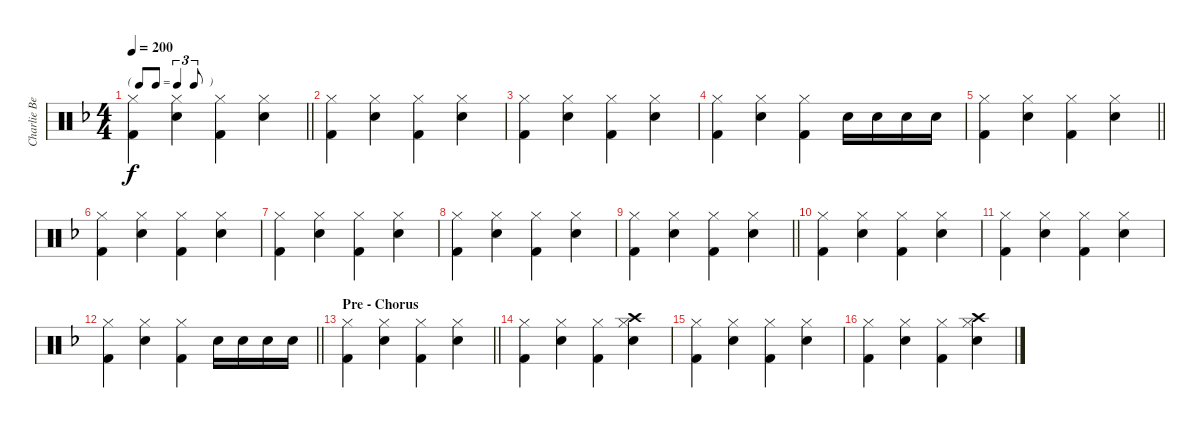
\track ("Charlie Benante" "Charlie Be") {instrument percussion}
\staff {score}
\articulation defaults
\ts (4 4)
\tf triplet8th
\tempo 200
\clef neutral
\barLineRight lightlight
\ks f
("Hi-Hat (closed)" "Kick (hit) 2").4{dy f} ("Hi-Hat (closed)" "Electric Snare (hit)").4 ("Hi-Hat (closed)" "Kick (hit) 2").4 ("Hi-Hat (closed)" "Electric Snare (hit)").4 |
("Hi-Hat (closed)" "Kick (hit) 2").4 ("Hi-Hat (closed)" "Electric Snare (hit)").4 ("Hi-Hat (closed)" "Kick (hit) 2").4 ("Hi-Hat (closed)" "Electric Snare (hit)").4 |
("Hi-Hat (closed)" "Kick (hit) 2").4 ("Hi-Hat (closed)" "Electric Snare (hit)").4 ("Hi-Hat (closed)" "Kick (hit) 2").4 ("Hi-Hat (closed)" "Electric Snare (hit)").4 |
("Hi-Hat (closed)" "Kick (hit) 2").4 ("Hi-Hat (closed)" "Electric Snare (hit)").4 ("Hi-Hat (closed)" "Kick (hit) 2").4 "Electric Snare (hit)".16 "Electric Snare (hit)".16 "Electric Snare (hit)".16 "Electric Snare (hit)".16 |
\barLineRight lightlight
("Hi-Hat (closed)" "Kick (hit) 2").4 ("Hi-Hat (closed)" "Electric Snare (hit)").4 ("Hi-Hat (closed)" "Kick (hit) 2").4 ("Hi-Hat (closed)" "Electric Snare (hit)").4 |
("Hi-Hat (closed)" "Kick (hit) 2").4 ("Hi-Hat (closed)" "Electric Snare (hit)").4 ("Hi-Hat (closed)" "Kick (hit) 2").4 ("Hi-Hat (closed)" "Electric Snare (hit)").4 |
("Hi-Hat (closed)" "Kick (hit) 2").4 ("Hi-Hat (closed)" "Electric Snare (hit)").4 ("Hi-Hat (closed)" "Kick (hit) 2").4 ("Hi-Hat (closed)" "Electric Snare (hit)").4 |
("Hi-Hat (closed)" "Kick (hit) 2").4 ("Hi-Hat (closed)" "Electric Snare (hit)").4 ("Hi-Hat (closed)" "Kick (hit) 2").4 ("Hi-Hat (closed)" "Electric Snare (hit)").4 |
\barLineRight lightlight
("Hi-Hat (closed)" "Kick (hit) 2").4 ("Hi-Hat (closed)" "Electric Snare (hit)").4 ("Hi-Hat (closed)" "Kick (hit) 2").4 ("Hi-Hat (closed)" "Electric Snare (hit)").4 |
("Hi-Hat (closed)" "Kick (hit) 2").4 ("Hi-Hat (closed)" "Electric Snare (hit)").4 ("Hi-Hat (closed)" "Kick (hit) 2").4 ("Hi-Hat (closed)" "Electric Snare (hit)").4 |
("Hi-Hat (closed)" "Kick (hit) 2").4 ("Hi-Hat (closed)" "Electric Snare (hit)").4 ("Hi-Hat (closed)" "Kick (hit) 2").4 ("Hi-Hat (closed)" "Electric Snare (hit)").4 |
\barLineRight lightlight
("Hi-Hat (closed)" "Kick (hit) 2").4 ("Hi-Hat (closed)" "Electric Snare (hit)").4 ("Hi-Hat (closed)" "Kick (hit) 2").4 "Electric Snare (hit)".16 "Electric Snare (hit)".16 "Electric Snare (hit)".16 "Electric Snare (hit)".16 |
\section ("" "Pre - Chorus")
\barLineRight lightlight
("Hi-Hat (closed)" "Kick (hit) 2").4 ("Hi-Hat (closed)" "Electric Snare (hit)").4 ("Hi-Hat (closed)" "Kick (hit) 2").4 ("Hi-Hat (closed)" "Electric Snare (hit)").4 |
("Hi-Hat (closed)" "Kick (hit) 2").4 ("Hi-Hat (closed)" "Electric Snare (hit)").4 ("Hi-Hat (closed)" "Kick (hit) 2").4 ("Crash high (hit)" "Hi-Hat (closed)" "Electric Snare (hit)").4 |
("Hi-Hat (closed)" "Kick (hit) 2").4 ("Hi-Hat (closed)" "Electric Snare (hit)").4 ("Hi-Hat (closed)" "Kick (hit) 2").4 ("Hi-Hat (closed)" "Electric Snare (hit)").4 |
("Hi-Hat (closed)" "Kick (hit) 2").4 ("Hi-Hat (closed)" "Electric Snare (hit)").4 ("Hi-Hat (closed)" "Kick (hit) 2").4 ("Crash high (hit)" "Hi-Hat (closed)" "Electric Snare (hit)").4
